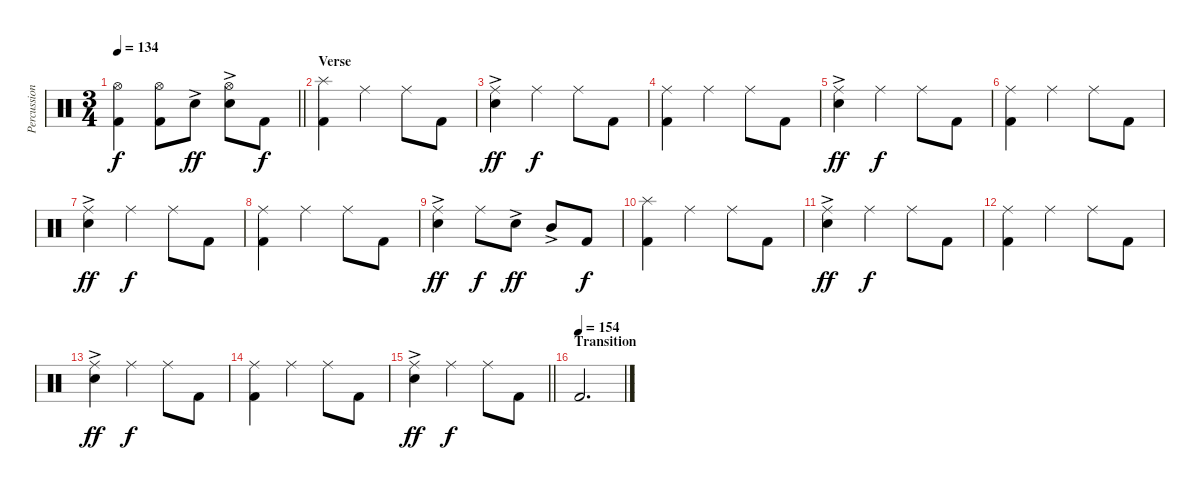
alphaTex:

\track ("Percussion" "Percussion") {instrument percussion}
\staff {score}
\articulation defaults
\ts (3 4)
\tempo 134
\clef neutral
\barLineRight lightlight
\ks c
("Hi-Hat (open)" "Kick (hit) 2").4{dy f} ("Hi-Hat (open)" "Kick (hit) 2").8 "Electric Snare (hit)"{ac}.8{dy ff} ("Hi-Hat (open)" "Electric Snare (hit)"{ac}).8 "Kick (hit) 2".8{dy f} |
\section ("" "Verse")
("Splash (hit)" "Kick (hit) 2").4 "Ride (middle)".4 "Ride (middle)".8 "Kick (hit) 2".8 |
("Ride (middle)" "Electric Snare (hit)"{ac}).4{dy ff} "Ride (middle)".4{dy f} "Ride (middle)".8 "Kick (hit) 2".8 |
("Ride (middle)" "Kick (hit) 2").4 "Ride (middle)".4 "Ride (middle)".8 "Kick (hit) 2".8 |
("Ride (middle)" "Electric Snare (hit)"{ac}).4{dy ff} "Ride (middle)".4{dy f} "Ride (middle)".8 "Kick (hit) 2".8 |
("Ride (middle)" "Kick (hit) 2").4 "Ride (middle)".4 "Ride (middle)".8 "Kick (hit) 2".8 |
("Ride (middle)" "Electric Snare (hit)"{ac}).4{dy ff} "Ride (middle)".4{dy f} "Ride (middle)".8 "Kick (hit) 2".8 |
("Ride (middle)" "Kick (hit) 2").4 "Ride (middle)".4 "Ride (middle)".8 "Kick (hit) 2".8 |
("Ride (middle)" "Electric Snare (hit)"{ac}).4{dy ff} "Ride (middle)".8{dy f} "Electric Snare (hit)"{ac}.8{dy ff} "Mid Tom (hit)"{ac}.8 "Kick (hit) 2".8{dy f} |
("Splash (hit)" "Kick (hit) 2").4 "Ride (middle)".4 "Ride (middle)".8 "Kick (hit) 2".8 |
("Ride (middle)" "Electric Snare (hit)"{ac}).4{dy ff} "Ride (middle)".4{dy f} "Ride (middle)".8 "Kick (hit) 2".8 |
("Ride (middle)" "Kick (hit) 2").4 "Ride (middle)".4 "Ride (middle)".8 "Kick (hit) 2".8 |
("Ride (middle)" "Electric Snare (hit)"{ac}).4{dy ff} "Ride (middle)".4{dy f} "Ride (middle)".8 "Kick (hit) 2".8 |
("Ride (middle)" "Kick (hit) 2").4 "Ride (middle)".4 "Ride (middle)".8 "Kick (hit) 2".8 |
\barLineRight lightlight
("Ride (middle)" "Electric Snare (hit)"{ac}).4{dy ff} "Ride (middle)".4{dy f} "Ride (middle)".8 "Kick (hit) 2".8 |
\section ("" "Transition")
\tempo (154)
"Kick (hit) 2".2{d}
